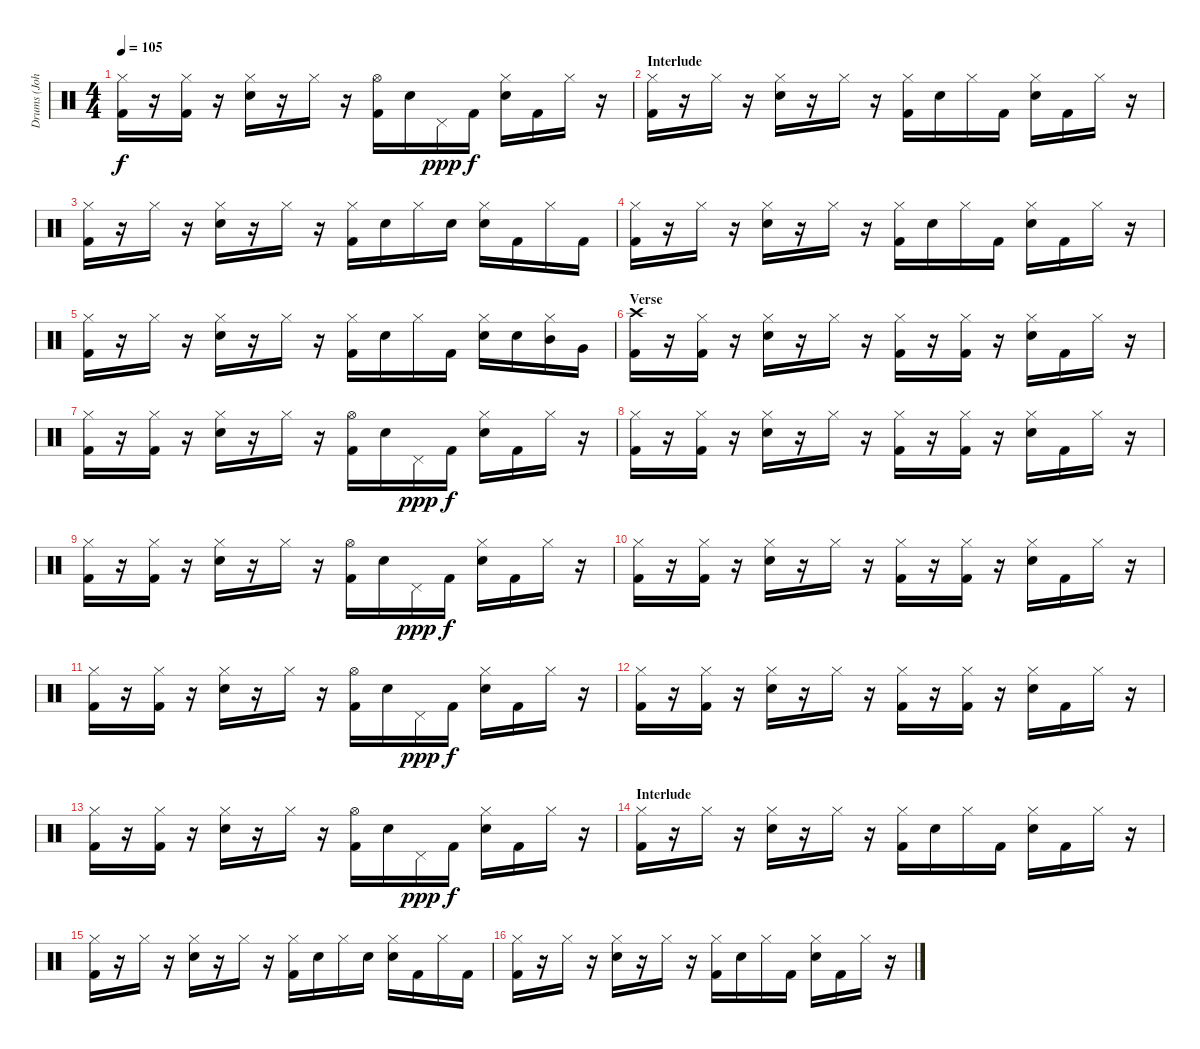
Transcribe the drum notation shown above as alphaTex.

\track ("Drums (John Otto)" "Drums (Joh") {instrument percussion}
\staff {score}
\articulation defaults
\ts (4 4)
\tempo 105
\clef neutral
\ks c
("Hi-Hat (closed)" "Kick (hit) 2").16{dy f} r.16 ("Hi-Hat (closed)" "Kick (hit) 2").16 r.16 ("Hi-Hat (closed)" "Electric Snare (hit)").16 r.16 "Hi-Hat (closed)".16 r.16 ("Hi-Hat (open)" "Kick (hit) 2").16 "Electric Snare (hit)".16 "Pedal Hi-Hat (hit)".16{dy ppp} "Kick (hit) 2".16{dy f} ("Hi-Hat (closed)" "Electric Snare (hit)").16 "Kick (hit) 2".16 "Hi-Hat (closed)".16 r.16 |
\section ("" "Interlude")
("Hi-Hat (closed)" "Kick (hit) 2").16 r.16 "Hi-Hat (closed)".16 r.16 ("Hi-Hat (closed)" "Electric Snare (hit)").16 r.16 "Hi-Hat (closed)".16 r.16 ("Hi-Hat (closed)" "Kick (hit) 2").16 "Electric Snare (hit)".16 "Hi-Hat (closed)".16 "Kick (hit) 2".16 ("Hi-Hat (closed)" "Electric Snare (hit)").16 "Kick (hit) 2".16 "Hi-Hat (closed)".16 r.16 |
("Hi-Hat (closed)" "Kick (hit) 2").16 r.16 "Hi-Hat (closed)".16 r.16 ("Hi-Hat (closed)" "Electric Snare (hit)").16 r.16 "Hi-Hat (closed)".16 r.16 ("Hi-Hat (closed)" "Kick (hit) 2").16 "Electric Snare (hit)".16 "Hi-Hat (closed)".16 "Electric Snare (hit)".16 ("Hi-Hat (closed)" "Electric Snare (hit)").16 "Kick (hit) 2".16 "Hi-Hat (closed)".16 "Kick (hit) 2".16 |
("Hi-Hat (closed)" "Kick (hit) 2").16 r.16 "Hi-Hat (closed)".16 r.16 ("Hi-Hat (closed)" "Electric Snare (hit)").16 r.16 "Hi-Hat (closed)".16 r.16 ("Hi-Hat (closed)" "Kick (hit) 2").16 "Electric Snare (hit)".16 "Hi-Hat (closed)".16 "Kick (hit) 2".16 ("Hi-Hat (closed)" "Electric Snare (hit)").16 "Kick (hit) 2".16 "Hi-Hat (closed)".16 r.16 |
("Hi-Hat (closed)" "Kick (hit) 2").16 r.16 "Hi-Hat (closed)".16 r.16 ("Hi-Hat (closed)" "Electric Snare (hit)").16 r.16 "Hi-Hat (closed)".16 r.16 ("Hi-Hat (closed)" "Kick (hit) 2").16 "Electric Snare (hit)".16 "Hi-Hat (closed)".16 "Kick (hit) 2".16 ("Hi-Hat (closed)" "Electric Snare (hit)").16 "Electric Snare (hit)".16 ("Hi-Hat (closed)" "Mid Tom (hit)").16 "Very Low Tom (hit)".16 |
\section ("" "Verse")
("Crash high (hit)" "Kick (hit) 2").16 r.16 ("Hi-Hat (closed)" "Kick (hit) 2").16 r.16 ("Hi-Hat (closed)" "Electric Snare (hit)").16 r.16 "Hi-Hat (closed)".16 r.16 ("Hi-Hat (closed)" "Kick (hit) 2").16 r.16 ("Hi-Hat (closed)" "Kick (hit) 2").16 r.16 ("Hi-Hat (closed)" "Electric Snare (hit)").16 "Kick (hit) 2".16 "Hi-Hat (closed)".16 r.16 |
("Hi-Hat (closed)" "Kick (hit) 2").16 r.16 ("Hi-Hat (closed)" "Kick (hit) 2").16 r.16 ("Hi-Hat (closed)" "Electric Snare (hit)").16 r.16 "Hi-Hat (closed)".16 r.16 ("Hi-Hat (open)" "Kick (hit) 2").16 "Electric Snare (hit)".16 "Pedal Hi-Hat (hit)".16{dy ppp} "Kick (hit) 2".16{dy f} ("Hi-Hat (closed)" "Electric Snare (hit)").16 "Kick (hit) 2".16 "Hi-Hat (closed)".16 r.16 |
("Hi-Hat (closed)" "Kick (hit) 2").16 r.16 ("Hi-Hat (closed)" "Kick (hit) 2").16 r.16 ("Hi-Hat (closed)" "Electric Snare (hit)").16 r.16 "Hi-Hat (closed)".16 r.16 ("Hi-Hat (closed)" "Kick (hit) 2").16 r.16 ("Hi-Hat (closed)" "Kick (hit) 2").16 r.16 ("Hi-Hat (closed)" "Electric Snare (hit)").16 "Kick (hit) 2".16 "Hi-Hat (closed)".16 r.16 |
("Hi-Hat (closed)" "Kick (hit) 2").16 r.16 ("Hi-Hat (closed)" "Kick (hit) 2").16 r.16 ("Hi-Hat (closed)" "Electric Snare (hit)").16 r.16 "Hi-Hat (closed)".16 r.16 ("Hi-Hat (open)" "Kick (hit) 2").16 "Electric Snare (hit)".16 "Pedal Hi-Hat (hit)".16{dy ppp} "Kick (hit) 2".16{dy f} ("Hi-Hat (closed)" "Electric Snare (hit)").16 "Kick (hit) 2".16 "Hi-Hat (closed)".16 r.16 |
("Hi-Hat (closed)" "Kick (hit) 2").16 r.16 ("Hi-Hat (closed)" "Kick (hit) 2").16 r.16 ("Hi-Hat (closed)" "Electric Snare (hit)").16 r.16 "Hi-Hat (closed)".16 r.16 ("Hi-Hat (closed)" "Kick (hit) 2").16 r.16 ("Hi-Hat (closed)" "Kick (hit) 2").16 r.16 ("Hi-Hat (closed)" "Electric Snare (hit)").16 "Kick (hit) 2".16 "Hi-Hat (closed)".16 r.16 |
("Hi-Hat (closed)" "Kick (hit) 2").16 r.16 ("Hi-Hat (closed)" "Kick (hit) 2").16 r.16 ("Hi-Hat (closed)" "Electric Snare (hit)").16 r.16 "Hi-Hat (closed)".16 r.16 ("Hi-Hat (open)" "Kick (hit) 2").16 "Electric Snare (hit)".16 "Pedal Hi-Hat (hit)".16{dy ppp} "Kick (hit) 2".16{dy f} ("Hi-Hat (closed)" "Electric Snare (hit)").16 "Kick (hit) 2".16 "Hi-Hat (closed)".16 r.16 |
("Hi-Hat (closed)" "Kick (hit) 2").16 r.16 ("Hi-Hat (closed)" "Kick (hit) 2").16 r.16 ("Hi-Hat (closed)" "Electric Snare (hit)").16 r.16 "Hi-Hat (closed)".16 r.16 ("Hi-Hat (closed)" "Kick (hit) 2").16 r.16 ("Hi-Hat (closed)" "Kick (hit) 2").16 r.16 ("Hi-Hat (closed)" "Electric Snare (hit)").16 "Kick (hit) 2".16 "Hi-Hat (closed)".16 r.16 |
("Hi-Hat (closed)" "Kick (hit) 2").16 r.16 ("Hi-Hat (closed)" "Kick (hit) 2").16 r.16 ("Hi-Hat (closed)" "Electric Snare (hit)").16 r.16 "Hi-Hat (closed)".16 r.16 ("Hi-Hat (open)" "Kick (hit) 2").16 "Electric Snare (hit)".16 "Pedal Hi-Hat (hit)".16{dy ppp} "Kick (hit) 2".16{dy f} ("Hi-Hat (closed)" "Electric Snare (hit)").16 "Kick (hit) 2".16 "Hi-Hat (closed)".16 r.16 |
\section ("" "Interlude")
("Hi-Hat (closed)" "Kick (hit) 2").16 r.16 "Hi-Hat (closed)".16 r.16 ("Hi-Hat (closed)" "Electric Snare (hit)").16 r.16 "Hi-Hat (closed)".16 r.16 ("Hi-Hat (closed)" "Kick (hit) 2").16 "Electric Snare (hit)".16 "Hi-Hat (closed)".16 "Kick (hit) 2".16 ("Hi-Hat (closed)" "Electric Snare (hit)").16 "Kick (hit) 2".16 "Hi-Hat (closed)".16 r.16 |
("Hi-Hat (closed)" "Kick (hit) 2").16 r.16 "Hi-Hat (closed)".16 r.16 ("Hi-Hat (closed)" "Electric Snare (hit)").16 r.16 "Hi-Hat (closed)".16 r.16 ("Hi-Hat (closed)" "Kick (hit) 2").16 "Electric Snare (hit)".16 "Hi-Hat (closed)".16 "Electric Snare (hit)".16 ("Hi-Hat (closed)" "Electric Snare (hit)").16 "Kick (hit) 2".16 "Hi-Hat (closed)".16 "Kick (hit) 2".16 |
("Hi-Hat (closed)" "Kick (hit) 2").16 r.16 "Hi-Hat (closed)".16 r.16 ("Hi-Hat (closed)" "Electric Snare (hit)").16 r.16 "Hi-Hat (closed)".16 r.16 ("Hi-Hat (closed)" "Kick (hit) 2").16 "Electric Snare (hit)".16 "Hi-Hat (closed)".16 "Kick (hit) 2".16 ("Hi-Hat (closed)" "Electric Snare (hit)").16 "Kick (hit) 2".16 "Hi-Hat (closed)".16 r.16
